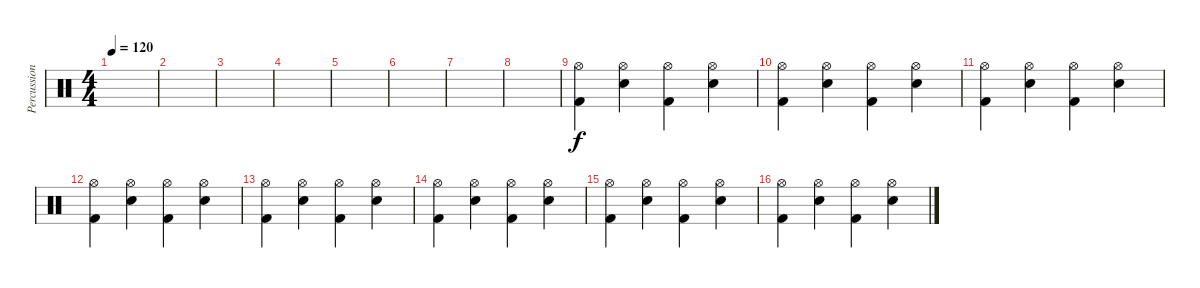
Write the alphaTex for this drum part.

\track ("Percussions" "Percussion") {instrument percussion}
\staff {score}
\articulation defaults
\ts (4 4)
\tempo 120
\clef neutral
\ks c
|
|
|
|
|
|
|
|
("Kick (hit) 2" "Hi-Hat (open)").4 ("Electric Snare (hit)" "Hi-Hat (open)").4 ("Kick (hit) 2" "Hi-Hat (open)").4 ("Electric Snare (hit)" "Hi-Hat (open)").4 |
("Kick (hit) 2" "Hi-Hat (open)").4 ("Electric Snare (hit)" "Hi-Hat (open)").4 ("Kick (hit) 2" "Hi-Hat (open)").4 ("Electric Snare (hit)" "Hi-Hat (open)").4 |
("Kick (hit) 2" "Hi-Hat (open)").4 ("Electric Snare (hit)" "Hi-Hat (open)").4 ("Kick (hit) 2" "Hi-Hat (open)").4 ("Electric Snare (hit)" "Hi-Hat (open)").4 |
("Kick (hit) 2" "Hi-Hat (open)").4 ("Electric Snare (hit)" "Hi-Hat (open)").4 ("Kick (hit) 2" "Hi-Hat (open)").4 ("Electric Snare (hit)" "Hi-Hat (open)").4 |
("Kick (hit) 2" "Hi-Hat (open)").4 ("Electric Snare (hit)" "Hi-Hat (open)").4 ("Kick (hit) 2" "Hi-Hat (open)").4 ("Electric Snare (hit)" "Hi-Hat (open)").4 |
("Kick (hit) 2" "Hi-Hat (open)").4 ("Electric Snare (hit)" "Hi-Hat (open)").4 ("Kick (hit) 2" "Hi-Hat (open)").4 ("Electric Snare (hit)" "Hi-Hat (open)").4 |
("Kick (hit) 2" "Hi-Hat (open)").4 ("Electric Snare (hit)" "Hi-Hat (open)").4 ("Kick (hit) 2" "Hi-Hat (open)").4 ("Electric Snare (hit)" "Hi-Hat (open)").4 |
("Kick (hit) 2" "Hi-Hat (open)").4 ("Electric Snare (hit)" "Hi-Hat (open)").4 ("Kick (hit) 2" "Hi-Hat (open)").4 ("Electric Snare (hit)" "Hi-Hat (open)").4
